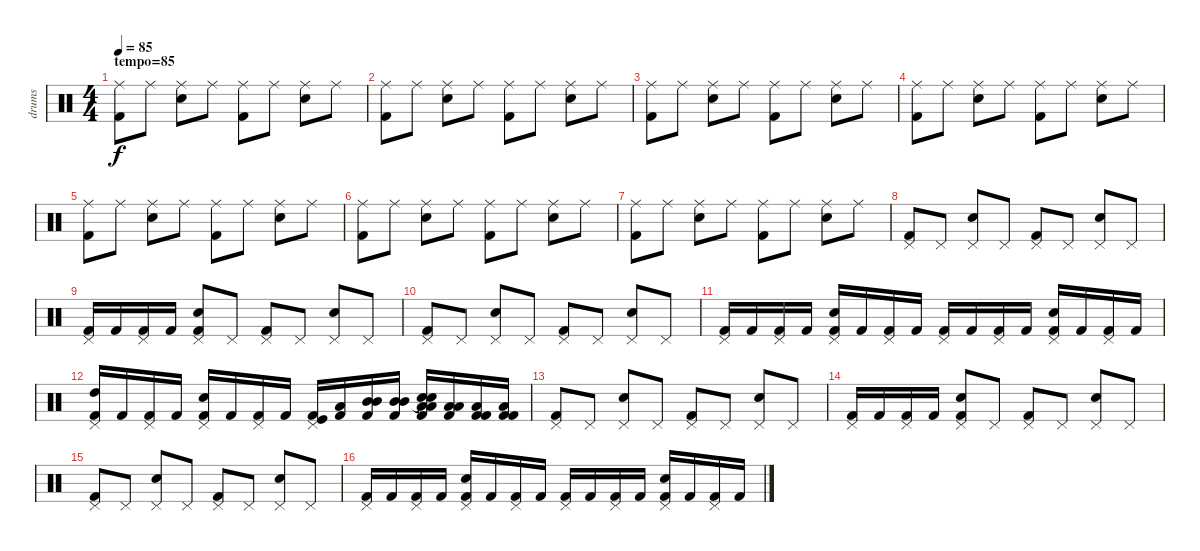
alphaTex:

\track ("drums" "drums") {instrument percussion}
\staff {score}
\articulation defaults
\ts (4 4)
\section ("" "tempo=85")
\tempo 85
\clef neutral
\ks c
("Ride (middle)" "Kick (hit) 2").8{dy f} "Ride (middle)".8 ("Snare (hit) 2" "Ride (middle)").8 "Ride (middle)".8 ("Ride (middle)" "Kick (hit) 2").8 "Ride (middle)".8 ("Snare (hit) 2" "Ride (middle)").8 "Ride (middle)".8 |
("Ride (middle)" "Kick (hit) 2").8 "Ride (middle)".8 ("Snare (hit) 2" "Ride (middle)").8 "Ride (middle)".8 ("Ride (middle)" "Kick (hit) 2").8 "Ride (middle)".8 ("Snare (hit) 2" "Ride (middle)").8 "Ride (middle)".8 |
("Ride (middle)" "Kick (hit) 2").8 "Ride (middle)".8 ("Snare (hit) 2" "Ride (middle)").8 "Ride (middle)".8 ("Ride (middle)" "Kick (hit) 2").8 "Ride (middle)".8 ("Snare (hit) 2" "Ride (middle)").8 "Ride (middle)".8 |
("Ride (middle)" "Kick (hit) 2").8 "Ride (middle)".8 ("Snare (hit) 2" "Ride (middle)").8 "Ride (middle)".8 ("Ride (middle)" "Kick (hit) 2").8 "Ride (middle)".8 ("Snare (hit) 2" "Ride (middle)").8 "Ride (middle)".8 |
("Ride (middle)" "Kick (hit) 2").8 "Ride (middle)".8 ("Snare (hit) 2" "Ride (middle)").8 "Ride (middle)".8 ("Ride (middle)" "Kick (hit) 2").8 "Ride (middle)".8 ("Snare (hit) 2" "Ride (middle)").8 "Ride (middle)".8 |
("Ride (middle)" "Kick (hit) 2").8 "Ride (middle)".8 ("Snare (hit) 2" "Ride (middle)").8 "Ride (middle)".8 ("Ride (middle)" "Kick (hit) 2").8 "Ride (middle)".8 ("Snare (hit) 2" "Ride (middle)").8 "Ride (middle)".8 |
("Ride (middle)" "Kick (hit) 2").8 "Ride (middle)".8 ("Snare (hit) 2" "Ride (middle)").8 "Ride (middle)".8 ("Ride (middle)" "Kick (hit) 2").8 "Ride (middle)".8 ("Snare (hit) 2" "Ride (middle)").8 "Ride (middle)".8 |
("Pedal Hi-Hat (hit)" "Kick (hit) 2").8 "Pedal Hi-Hat (hit)".8 ("Snare (hit) 2" "Pedal Hi-Hat (hit)").8 "Pedal Hi-Hat (hit)".8 ("Pedal Hi-Hat (hit)" "Kick (hit) 2").8 "Pedal Hi-Hat (hit)".8 ("Snare (hit) 2" "Pedal Hi-Hat (hit)").8 "Pedal Hi-Hat (hit)".8 |
("Pedal Hi-Hat (hit)" "Kick (hit) 2").16 "Kick (hit) 2".16 ("Pedal Hi-Hat (hit)" "Kick (hit) 2").16 "Kick (hit) 2".16 ("Snare (hit) 2" "Pedal Hi-Hat (hit)" "Kick (hit) 2").8 "Pedal Hi-Hat (hit)".8 ("Pedal Hi-Hat (hit)" "Kick (hit) 2").8 "Pedal Hi-Hat (hit)".8 ("Snare (hit) 2" "Pedal Hi-Hat (hit)").8 "Pedal Hi-Hat (hit)".8 |
("Pedal Hi-Hat (hit)" "Kick (hit) 2").8 "Pedal Hi-Hat (hit)".8 ("Snare (hit) 2" "Pedal Hi-Hat (hit)").8 "Pedal Hi-Hat (hit)".8 ("Pedal Hi-Hat (hit)" "Kick (hit) 2").8 "Pedal Hi-Hat (hit)".8 ("Snare (hit) 2" "Pedal Hi-Hat (hit)").8 "Pedal Hi-Hat (hit)".8 |
("Pedal Hi-Hat (hit)" "Kick (hit) 2").16 "Kick (hit) 2".16 ("Pedal Hi-Hat (hit)" "Kick (hit) 2").16 "Kick (hit) 2".16 ("Snare (hit) 2" "Pedal Hi-Hat (hit)" "Kick (hit) 2").16 "Kick (hit) 2".16 ("Pedal Hi-Hat (hit)" "Kick (hit) 2").16 "Kick (hit) 2".16 ("Pedal Hi-Hat (hit)" "Kick (hit) 2").16 "Kick (hit) 2".16 ("Pedal Hi-Hat (hit)" "Kick (hit) 2").16 "Kick (hit) 2".16 ("Snare (hit) 2" "Pedal Hi-Hat (hit)" "Kick (hit) 2").16 "Kick (hit) 2".16 ("Pedal Hi-Hat (hit)" "Kick (hit) 2").16 "Kick (hit) 2".16 |
("Pedal Hi-Hat (hit)" "High Tom (hit)" "Kick (hit) 2").16 "Kick (hit) 2".16 ("Pedal Hi-Hat (hit)" "Kick (hit) 2").16 "Kick (hit) 2".16 ("Snare (hit) 2" "Pedal Hi-Hat (hit)" "Kick (hit) 2").16 "Kick (hit) 2".16 ("Pedal Hi-Hat (hit)" "Kick (hit) 2").16 "Kick (hit) 2".16 ("Pedal Hi-Hat (hit)" "Kick (hit)" "Kick (hit) 2").16 ("Low Tom (hit)" "Kick (hit) 2").16 ("Mid Tom (hit)" "Mid Tom (hit)" "Kick (hit) 2").16 ("Mid Tom (hit)" "Mid Tom (hit)" "Kick (hit) 2").16 ("Snare (hit) 2"{t} "Snare (hit)"{t} "Low Tom (hit)" "Low Tom (hit)" "Kick (hit) 2").16 ("Low Tom (hit)" "Low Tom (hit)" "Kick (hit) 2").16 ("Low Floor Tom (hit)" "Kick (hit) 2" "Kick (hit) 2").16 ("Low Floor Tom (hit)" "Kick (hit) 2" "Kick (hit) 2").16 |
("Pedal Hi-Hat (hit)" "Kick (hit) 2").8 "Pedal Hi-Hat (hit)".8 ("Snare (hit) 2" "Pedal Hi-Hat (hit)").8 "Pedal Hi-Hat (hit)".8 ("Pedal Hi-Hat (hit)" "Kick (hit) 2").8 "Pedal Hi-Hat (hit)".8 ("Snare (hit) 2" "Pedal Hi-Hat (hit)").8 "Pedal Hi-Hat (hit)".8 |
("Pedal Hi-Hat (hit)" "Kick (hit) 2").16 "Kick (hit) 2".16 ("Pedal Hi-Hat (hit)" "Kick (hit) 2").16 "Kick (hit) 2".16 ("Snare (hit) 2" "Pedal Hi-Hat (hit)" "Kick (hit) 2").8 "Pedal Hi-Hat (hit)".8 ("Pedal Hi-Hat (hit)" "Kick (hit) 2").8 "Pedal Hi-Hat (hit)".8 ("Snare (hit) 2" "Pedal Hi-Hat (hit)").8 "Pedal Hi-Hat (hit)".8 |
("Pedal Hi-Hat (hit)" "Kick (hit) 2").8 "Pedal Hi-Hat (hit)".8 ("Snare (hit) 2" "Pedal Hi-Hat (hit)").8 "Pedal Hi-Hat (hit)".8 ("Pedal Hi-Hat (hit)" "Kick (hit) 2").8 "Pedal Hi-Hat (hit)".8 ("Snare (hit) 2" "Pedal Hi-Hat (hit)").8 "Pedal Hi-Hat (hit)".8 |
("Pedal Hi-Hat (hit)" "Kick (hit) 2").16 "Kick (hit) 2".16 ("Pedal Hi-Hat (hit)" "Kick (hit) 2").16 "Kick (hit) 2".16 ("Snare (hit) 2" "Pedal Hi-Hat (hit)" "Kick (hit) 2").16 "Kick (hit) 2".16 ("Pedal Hi-Hat (hit)" "Kick (hit) 2").16 "Kick (hit) 2".16 ("Pedal Hi-Hat (hit)" "Kick (hit) 2").16 "Kick (hit) 2".16 ("Pedal Hi-Hat (hit)" "Kick (hit) 2").16 "Kick (hit) 2".16 ("Snare (hit) 2" "Pedal Hi-Hat (hit)" "Kick (hit) 2").16 "Kick (hit) 2".16 ("Pedal Hi-Hat (hit)" "Kick (hit) 2").16 "Kick (hit) 2".16
